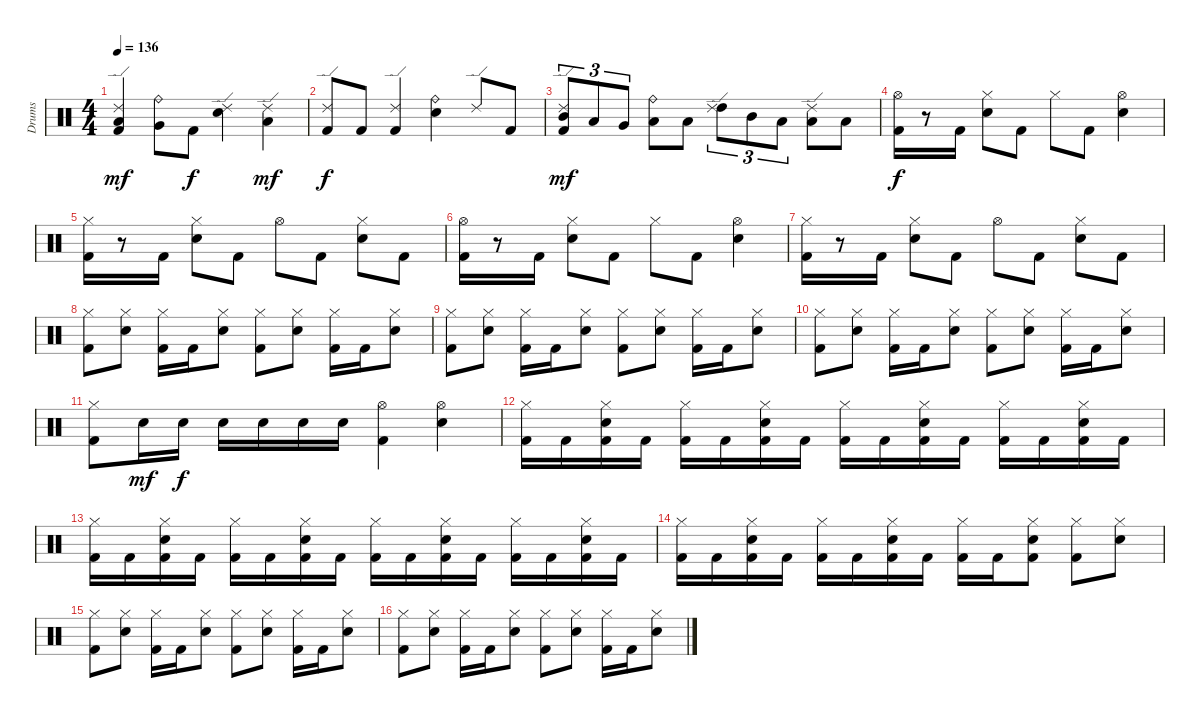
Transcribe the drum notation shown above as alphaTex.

\track ("Drums" "Drums") {instrument percussion}
\staff {score}
\articulation defaults
\ts (4 4)
\tempo 136
\clef neutral
\ks c
("Kick (hit) 2" "Low Tom (hit)" "Ride (edge) 2").4{dy mf} ("Very Low Tom (hit)" "Ride (bell)").8 "Kick (hit) 2".8{dy f} ("Snare (hit) 2" "Ride (edge) 2").4 ("Low Floor Tom (hit)" "Ride (edge) 2").4{dy mf} |
("Kick (hit) 2" "Ride (edge) 2").8{dy f} "Kick (hit) 2".8 ("Kick (hit) 2" "Ride (edge) 2").4 ("Snare (hit) 2" "Ride (bell)").4 "Ride (edge) 2".8 "Kick (hit) 2".8 |
("Kick (hit) 2" "Mid Tom (hit)" "Ride (edge) 2").8{tu (3 2) dy mf} "Low Tom (hit)".8{tu (3 2)} "Very Low Tom (hit)".8{tu (3 2)} ("Low Floor Tom (hit)" "Ride (bell)").8 "Low Tom (hit)".8 ("High Tom (hit)" "Ride (edge) 2").8{tu (3 2)} "Mid Tom (hit)".8{tu (3 2)} "Low Tom (hit)".8{tu (3 2)} ("Low Floor Tom (hit)" "Ride (edge) 2").8 "Low Floor Tom (hit)".8 |
("Kick (hit) 2" "Hi-Hat (open)").16{dy f} r.8 "Kick (hit) 2".16 ("Snare (hit) 2" "Hi-Hat (closed)").8 "Kick (hit) 2".8 "Hi-Hat (closed)".8 "Kick (hit) 2".8 ("Snare (hit) 2" "Hi-Hat (open)").4 |
("Kick (hit) 2" "Hi-Hat (closed)").16 r.8 "Kick (hit) 2".16 ("Snare (hit) 2" "Hi-Hat (closed)").8 "Kick (hit) 2".8 "Hi-Hat (open)".8 "Kick (hit) 2".8 ("Snare (hit) 2" "Hi-Hat (closed)").8 "Kick (hit) 2".8 |
("Kick (hit) 2" "Hi-Hat (open)").16 r.8 "Kick (hit) 2".16 ("Snare (hit) 2" "Hi-Hat (closed)").8 "Kick (hit) 2".8 "Hi-Hat (closed)".8 "Kick (hit) 2".8 ("Snare (hit) 2" "Hi-Hat (open)").4 |
("Kick (hit) 2" "Hi-Hat (closed)").16 r.8 "Kick (hit) 2".16 ("Snare (hit) 2" "Hi-Hat (closed)").8 "Kick (hit) 2".8 "Hi-Hat (open)".8 "Kick (hit) 2".8 ("Snare (hit) 2" "Hi-Hat (closed)").8 "Kick (hit) 2".8 |
("Kick (hit) 2" "Hi-Hat (closed)").8 ("Snare (hit) 2" "Hi-Hat (closed)").8 ("Kick (hit) 2" "Hi-Hat (closed)").16 "Kick (hit) 2".16 ("Snare (hit) 2" "Hi-Hat (closed)").8 ("Kick (hit) 2" "Hi-Hat (closed)").8 ("Snare (hit) 2" "Hi-Hat (closed)").8 ("Kick (hit) 2" "Hi-Hat (closed)").16 "Kick (hit) 2".16 ("Snare (hit) 2" "Hi-Hat (closed)").8 |
("Kick (hit) 2" "Hi-Hat (closed)").8 ("Snare (hit) 2" "Hi-Hat (closed)").8 ("Kick (hit) 2" "Hi-Hat (closed)").16 "Kick (hit) 2".16 ("Snare (hit) 2" "Hi-Hat (closed)").8 ("Kick (hit) 2" "Hi-Hat (closed)").8 ("Snare (hit) 2" "Hi-Hat (closed)").8 ("Kick (hit) 2" "Hi-Hat (closed)").16 "Kick (hit) 2".16 ("Snare (hit) 2" "Hi-Hat (closed)").8 |
("Kick (hit) 2" "Hi-Hat (closed)").8 ("Snare (hit) 2" "Hi-Hat (closed)").8 ("Kick (hit) 2" "Hi-Hat (closed)").16 "Kick (hit) 2".16 ("Snare (hit) 2" "Hi-Hat (closed)").8 ("Kick (hit) 2" "Hi-Hat (closed)").8 ("Snare (hit) 2" "Hi-Hat (closed)").8 ("Kick (hit) 2" "Hi-Hat (closed)").16 "Kick (hit) 2".16 ("Snare (hit) 2" "Hi-Hat (closed)").8 |
("Kick (hit) 2" "Hi-Hat (closed)").8 "Snare (hit) 2".16{dy mf} "Snare (hit) 2".16{dy f} "Snare (hit) 2".16 "Snare (hit) 2".16 "Snare (hit) 2".16 "Snare (hit) 2".16 ("Kick (hit) 2" "Hi-Hat (open)").4 ("Snare (hit) 2" "Hi-Hat (open)").4 |
("Kick (hit) 2" "Hi-Hat (closed)").16 "Kick (hit) 2".16 ("Kick (hit) 2" "Snare (hit) 2" "Hi-Hat (closed)").16 "Kick (hit) 2".16 ("Kick (hit) 2" "Hi-Hat (closed)").16 "Kick (hit) 2".16 ("Kick (hit) 2" "Snare (hit) 2" "Hi-Hat (closed)").16 "Kick (hit) 2".16 ("Kick (hit) 2" "Hi-Hat (closed)").16 "Kick (hit) 2".16 ("Kick (hit) 2" "Snare (hit) 2" "Hi-Hat (closed)").16 "Kick (hit) 2".16 ("Kick (hit) 2" "Hi-Hat (closed)").16 "Kick (hit) 2".16 ("Kick (hit) 2" "Snare (hit) 2" "Hi-Hat (closed)").16 "Kick (hit) 2".16 |
("Kick (hit) 2" "Hi-Hat (closed)").16 "Kick (hit) 2".16 ("Kick (hit) 2" "Snare (hit) 2" "Hi-Hat (closed)").16 "Kick (hit) 2".16 ("Kick (hit) 2" "Hi-Hat (closed)").16 "Kick (hit) 2".16 ("Kick (hit) 2" "Snare (hit) 2" "Hi-Hat (closed)").16 "Kick (hit) 2".16 ("Kick (hit) 2" "Hi-Hat (closed)").16 "Kick (hit) 2".16 ("Kick (hit) 2" "Snare (hit) 2" "Hi-Hat (closed)").16 "Kick (hit) 2".16 ("Kick (hit) 2" "Hi-Hat (closed)").16 "Kick (hit) 2".16 ("Kick (hit) 2" "Snare (hit) 2" "Hi-Hat (closed)").16 "Kick (hit) 2".16 |
("Kick (hit) 2" "Hi-Hat (closed)").16 "Kick (hit) 2".16 ("Kick (hit) 2" "Snare (hit) 2" "Hi-Hat (closed)").16 "Kick (hit) 2".16 ("Kick (hit) 2" "Hi-Hat (closed)").16 "Kick (hit) 2".16 ("Kick (hit) 2" "Snare (hit) 2" "Hi-Hat (closed)").16 "Kick (hit) 2".16 ("Kick (hit) 2" "Hi-Hat (closed)").16 "Kick (hit) 2".16 ("Kick (hit) 2" "Snare (hit) 2" "Hi-Hat (closed)").8 ("Kick (hit) 2" "Hi-Hat (closed)").8 ("Snare (hit) 2" "Hi-Hat (closed)").8 |
("Kick (hit) 2" "Hi-Hat (closed)").8 ("Snare (hit) 2" "Hi-Hat (closed)").8 ("Kick (hit) 2" "Hi-Hat (closed)").16 "Kick (hit) 2".16 ("Snare (hit) 2" "Hi-Hat (closed)").8 ("Kick (hit) 2" "Hi-Hat (closed)").8 ("Snare (hit) 2" "Hi-Hat (closed)").8 ("Kick (hit) 2" "Hi-Hat (closed)").16 "Kick (hit) 2".16 ("Snare (hit) 2" "Hi-Hat (closed)").8 |
("Kick (hit) 2" "Hi-Hat (closed)").8 ("Snare (hit) 2" "Hi-Hat (closed)").8 ("Kick (hit) 2" "Hi-Hat (closed)").16 "Kick (hit) 2".16 ("Snare (hit) 2" "Hi-Hat (closed)").8 ("Kick (hit) 2" "Hi-Hat (closed)").8 ("Snare (hit) 2" "Hi-Hat (closed)").8 ("Kick (hit) 2" "Hi-Hat (closed)").16 "Kick (hit) 2".16 ("Snare (hit) 2" "Hi-Hat (closed)").8
